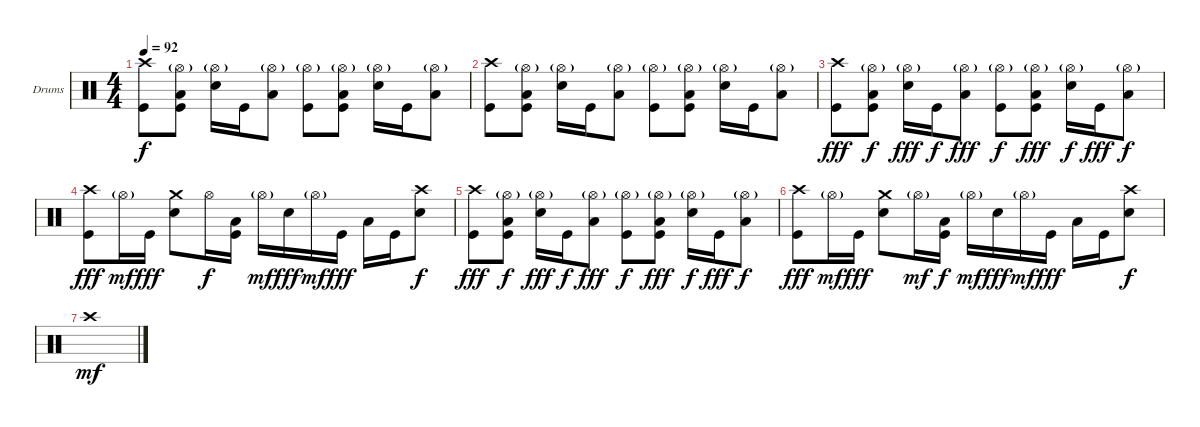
\defaultSystemsLayout 4
\bracketExtendMode groupsimilarinstruments
\firstSystemTrackNameOrientation horizontal
\otherSystemsTrackNameOrientation horizontal
\track ("Drumkit" "Drums") {instrument percussion}
\staff {score}
\articulation defaults
\ts (4 4)
\tempo 92
\clef neutral
\scale
0.333333
\ks c
("Kick (hit)" "Crash high (hit)").8{dy f} ("Hi-Hat (open)"{g} "Low Tom (hit)" "Kick (hit)").8 ("Hi-Hat (open)"{g} "Snare (hit) 2").16 "Kick (hit)".16 ("Hi-Hat (open)"{g} "Low Tom (hit)").8 ("Hi-Hat (open)"{g} "Kick (hit)").8 ("Hi-Hat (open)"{g} "Low Tom (hit)" "Kick (hit)").8 ("Hi-Hat (open)"{g} "Snare (hit) 2").16 "Kick (hit)".16 ("Hi-Hat (open)"{g} "Low Tom (hit)").8 |
\scale
0.333333 ("Kick (hit)" "Crash high (hit)").8 ("Hi-Hat (open)"{g} "Low Tom (hit)" "Kick (hit)").8 ("Hi-Hat (open)"{g} "Snare (hit) 2").16 "Kick (hit)".16 ("Hi-Hat (open)"{g} "Low Tom (hit)").8 ("Hi-Hat (open)"{g} "Kick (hit)").8 ("Hi-Hat (open)"{g} "Low Tom (hit)" "Kick (hit)").8 ("Hi-Hat (open)"{g} "Snare (hit) 2").16 "Kick (hit)".16 ("Hi-Hat (open)"{g} "Low Tom (hit)").8 |
\scale
0.333333 ("Kick (hit)" "Crash high (hit)").8{dy fff} ("Hi-Hat (open)"{g} "Low Tom (hit)" "Kick (hit)").8{dy f} ("Hi-Hat (open)"{g} "Snare (hit) 2").16{dy fff} "Kick (hit)".16{dy f} ("Hi-Hat (open)"{g} "Low Tom (hit)").8{dy fff} ("Hi-Hat (open)"{g} "Kick (hit)").8{dy f} ("Hi-Hat (open)"{g} "Low Tom (hit)" "Kick (hit)").8{dy fff} ("Hi-Hat (open)"{g} "Snare (hit) 2").16{dy f} "Kick (hit)".16{dy fff} ("Hi-Hat (open)"{g} "Low Tom (hit)").8{dy f} |
("Crash high (hit)" "Kick (hit)").8{dy fff} "Hi-Hat (open)"{g}.16{dy mf} "Kick (hit)".16{dy fff} ("Snare (hit) 2" "Crash medium (hit)").8 "Hi-Hat (open)".16{dy f} ("Low Tom (hit)" "Kick (hit)").16 "Hi-Hat (open)"{g}.16{dy mf} "Snare (hit) 2".16{dy fff} "Hi-Hat (open)"{g}.16{dy mf} "Kick (hit)".16{dy fff} "Low Tom (hit)".16 "Kick (hit)".16 ("Crash high (hit)" "Snare (hit) 2").8{dy f} |
("Kick (hit)" "Crash high (hit)").8{dy fff} ("Hi-Hat (open)"{g} "Low Tom (hit)" "Kick (hit)").8{dy f} ("Hi-Hat (open)"{g} "Snare (hit) 2").16{dy fff} "Kick (hit)".16{dy f} ("Hi-Hat (open)"{g} "Low Tom (hit)").8{dy fff} ("Hi-Hat (open)"{g} "Kick (hit)").8{dy f} ("Hi-Hat (open)"{g} "Low Tom (hit)" "Kick (hit)").8{dy fff} ("Hi-Hat (open)"{g} "Snare (hit) 2").16{dy f} "Kick (hit)".16{dy fff} ("Hi-Hat (open)"{g} "Low Tom (hit)").8{dy f} |
("Crash high (hit)" "Kick (hit)").8{dy fff} "Hi-Hat (open)"{g}.16{dy mf} "Kick (hit)".16{dy fff} ("Snare (hit) 2" "Crash medium (hit)").8 "Hi-Hat (open)"{g}.16{dy mf} ("Low Tom (hit)" "Kick (hit)").16{dy f} "Hi-Hat (open)"{g}.16{dy mf} "Snare (hit) 2".16{dy fff} "Hi-Hat (open)"{g}.16{dy mf} "Kick (hit)".16{dy fff} "Low Tom (hit)".16 "Kick (hit)".16 ("Crash high (hit)" "Snare (hit) 2").8{dy f} |
"Crash high (hit)".1{dy mf}
